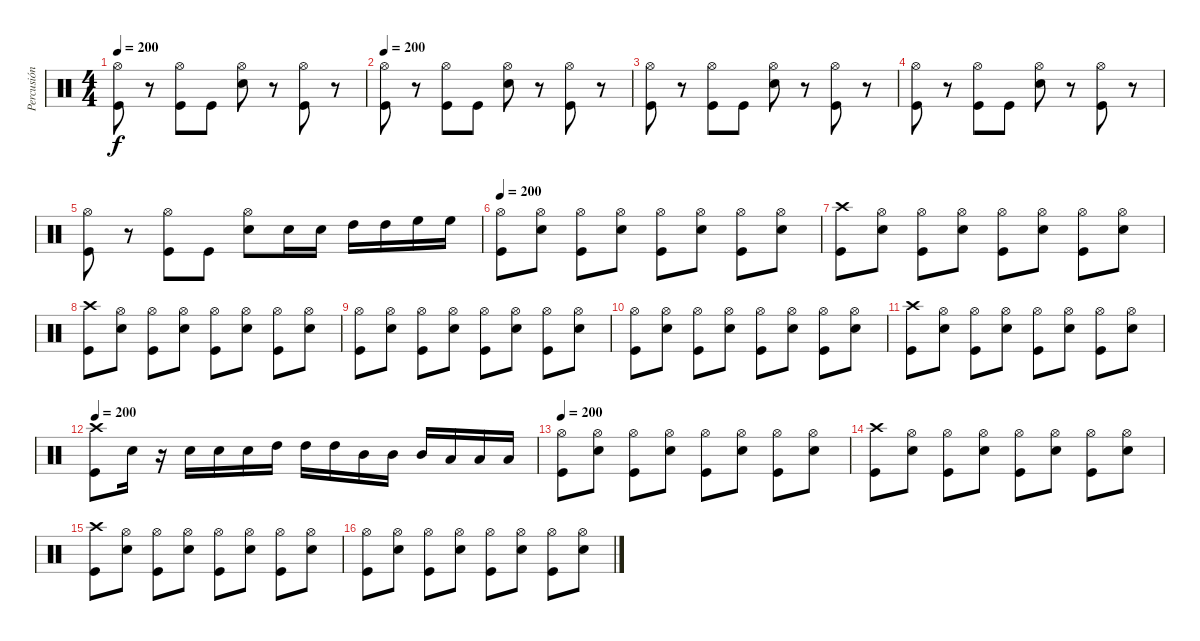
\track ("Percusión" "Percusión") {instrument percussion}
\staff {score}
\articulation defaults
\ts (4 4)
\tempo 200
\clef neutral
\ks c
("Hi-Hat (open)" "Kick (hit)").8{dy f} r.8 ("Hi-Hat (open)" "Kick (hit)").8 "Kick (hit)".8 ("Hi-Hat (open)" "Snare (hit) 2").8 r.8 ("Hi-Hat (open)" "Kick (hit)").8 r.8 |
\tempo 200
("Hi-Hat (open)" "Kick (hit)").8 r.8 ("Hi-Hat (open)" "Kick (hit)").8 "Kick (hit)".8 ("Hi-Hat (open)" "Snare (hit) 2").8 r.8 ("Hi-Hat (open)" "Kick (hit)").8 r.8 |
("Hi-Hat (open)" "Kick (hit)").8 r.8 ("Hi-Hat (open)" "Kick (hit)").8 "Kick (hit)".8 ("Hi-Hat (open)" "Snare (hit) 2").8 r.8 ("Hi-Hat (open)" "Kick (hit)").8 r.8 |
("Hi-Hat (open)" "Kick (hit)").8 r.8 ("Hi-Hat (open)" "Kick (hit)").8 "Kick (hit)".8 ("Hi-Hat (open)" "Snare (hit) 2").8 r.8 ("Hi-Hat (open)" "Kick (hit)").8 r.8 |
("Hi-Hat (open)" "Kick (hit)").8 r.8 ("Hi-Hat (open)" "Kick (hit)").8 "Kick (hit)".8 ("Hi-Hat (open)" "Snare (hit) 2").8 "Snare (hit) 2".16 "Snare (hit) 2".16 "High Tom (hit)".16 "High Tom (hit)".16 "High Floor Tom (hit)".16 "High Floor Tom (hit)".16 |
\tempo 200
("Hi-Hat (open)" "Kick (hit)").8 ("Hi-Hat (open)" "Snare (hit) 2").8 ("Hi-Hat (open)" "Kick (hit)").8 ("Hi-Hat (open)" "Snare (hit) 2").8 ("Hi-Hat (open)" "Kick (hit)").8 ("Hi-Hat (open)" "Snare (hit) 2").8 ("Hi-Hat (open)" "Kick (hit)").8 ("Hi-Hat (open)" "Snare (hit) 2").8 |
("Crash high (hit)" "Kick (hit)").8 ("Hi-Hat (open)" "Snare (hit) 2").8 ("Hi-Hat (open)" "Kick (hit)").8 ("Hi-Hat (open)" "Snare (hit) 2").8 ("Hi-Hat (open)" "Kick (hit)").8 ("Hi-Hat (open)" "Snare (hit) 2").8 ("Hi-Hat (open)" "Kick (hit)").8 ("Hi-Hat (open)" "Snare (hit) 2").8 |
("Crash high (hit)" "Kick (hit)").8 ("Hi-Hat (open)" "Snare (hit) 2").8 ("Hi-Hat (open)" "Kick (hit)").8 ("Hi-Hat (open)" "Snare (hit) 2").8 ("Hi-Hat (open)" "Kick (hit)").8 ("Hi-Hat (open)" "Snare (hit) 2").8 ("Hi-Hat (open)" "Kick (hit)").8 ("Hi-Hat (open)" "Snare (hit) 2").8 |
("Hi-Hat (open)" "Kick (hit)").8 ("Hi-Hat (open)" "Snare (hit) 2").8 ("Hi-Hat (open)" "Kick (hit)").8 ("Hi-Hat (open)" "Snare (hit) 2").8 ("Hi-Hat (open)" "Kick (hit)").8 ("Hi-Hat (open)" "Snare (hit) 2").8 ("Hi-Hat (open)" "Kick (hit)").8 ("Hi-Hat (open)" "Snare (hit) 2").8 |
("Hi-Hat (open)" "Kick (hit)").8 ("Hi-Hat (open)" "Snare (hit) 2").8 ("Hi-Hat (open)" "Kick (hit)").8 ("Hi-Hat (open)" "Snare (hit) 2").8 ("Hi-Hat (open)" "Kick (hit)").8 ("Hi-Hat (open)" "Snare (hit) 2").8 ("Hi-Hat (open)" "Kick (hit)").8 ("Hi-Hat (open)" "Snare (hit) 2").8 |
("Crash high (hit)" "Kick (hit)").8 ("Hi-Hat (open)" "Snare (hit) 2").8 ("Hi-Hat (open)" "Kick (hit)").8 ("Hi-Hat (open)" "Snare (hit) 2").8 ("Hi-Hat (open)" "Kick (hit)").8 ("Hi-Hat (open)" "Snare (hit) 2").8 ("Hi-Hat (open)" "Kick (hit)").8 ("Hi-Hat (open)" "Snare (hit) 2").8 |
\tempo 200
("Crash high (hit)" "Kick (hit)").8 "Snare (hit) 2".16 r.16 "Snare (hit) 2".16 "Snare (hit) 2".16 "Snare (hit) 2".16 "High Tom (hit)".16 "High Tom (hit)".16 "High Tom (hit)".16 "Mid Tom (hit)".16 "Mid Tom (hit)".16 "Mid Tom (hit)".16 "Low Tom (hit)".16 "Low Tom (hit)".16 "Low Tom (hit)".16 |
\tempo 200
("Hi-Hat (open)" "Kick (hit)").8 ("Hi-Hat (open)" "Snare (hit) 2").8 ("Hi-Hat (open)" "Kick (hit)").8 ("Hi-Hat (open)" "Snare (hit) 2").8 ("Hi-Hat (open)" "Kick (hit)").8 ("Hi-Hat (open)" "Snare (hit) 2").8 ("Hi-Hat (open)" "Kick (hit)").8 ("Hi-Hat (open)" "Snare (hit) 2").8 |
("Crash high (hit)" "Kick (hit)").8 ("Hi-Hat (open)" "Snare (hit) 2").8 ("Hi-Hat (open)" "Kick (hit)").8 ("Hi-Hat (open)" "Snare (hit) 2").8 ("Hi-Hat (open)" "Kick (hit)").8 ("Hi-Hat (open)" "Snare (hit) 2").8 ("Hi-Hat (open)" "Kick (hit)").8 ("Hi-Hat (open)" "Snare (hit) 2").8 |
("Crash high (hit)" "Kick (hit)").8 ("Hi-Hat (open)" "Snare (hit) 2").8 ("Hi-Hat (open)" "Kick (hit)").8 ("Hi-Hat (open)" "Snare (hit) 2").8 ("Hi-Hat (open)" "Kick (hit)").8 ("Hi-Hat (open)" "Snare (hit) 2").8 ("Hi-Hat (open)" "Kick (hit)").8 ("Hi-Hat (open)" "Snare (hit) 2").8 |
("Hi-Hat (open)" "Kick (hit)").8 ("Hi-Hat (open)" "Snare (hit) 2").8 ("Hi-Hat (open)" "Kick (hit)").8 ("Hi-Hat (open)" "Snare (hit) 2").8 ("Hi-Hat (open)" "Kick (hit)").8 ("Hi-Hat (open)" "Snare (hit) 2").8 ("Hi-Hat (open)" "Kick (hit)").8 ("Hi-Hat (open)" "Snare (hit) 2").8
